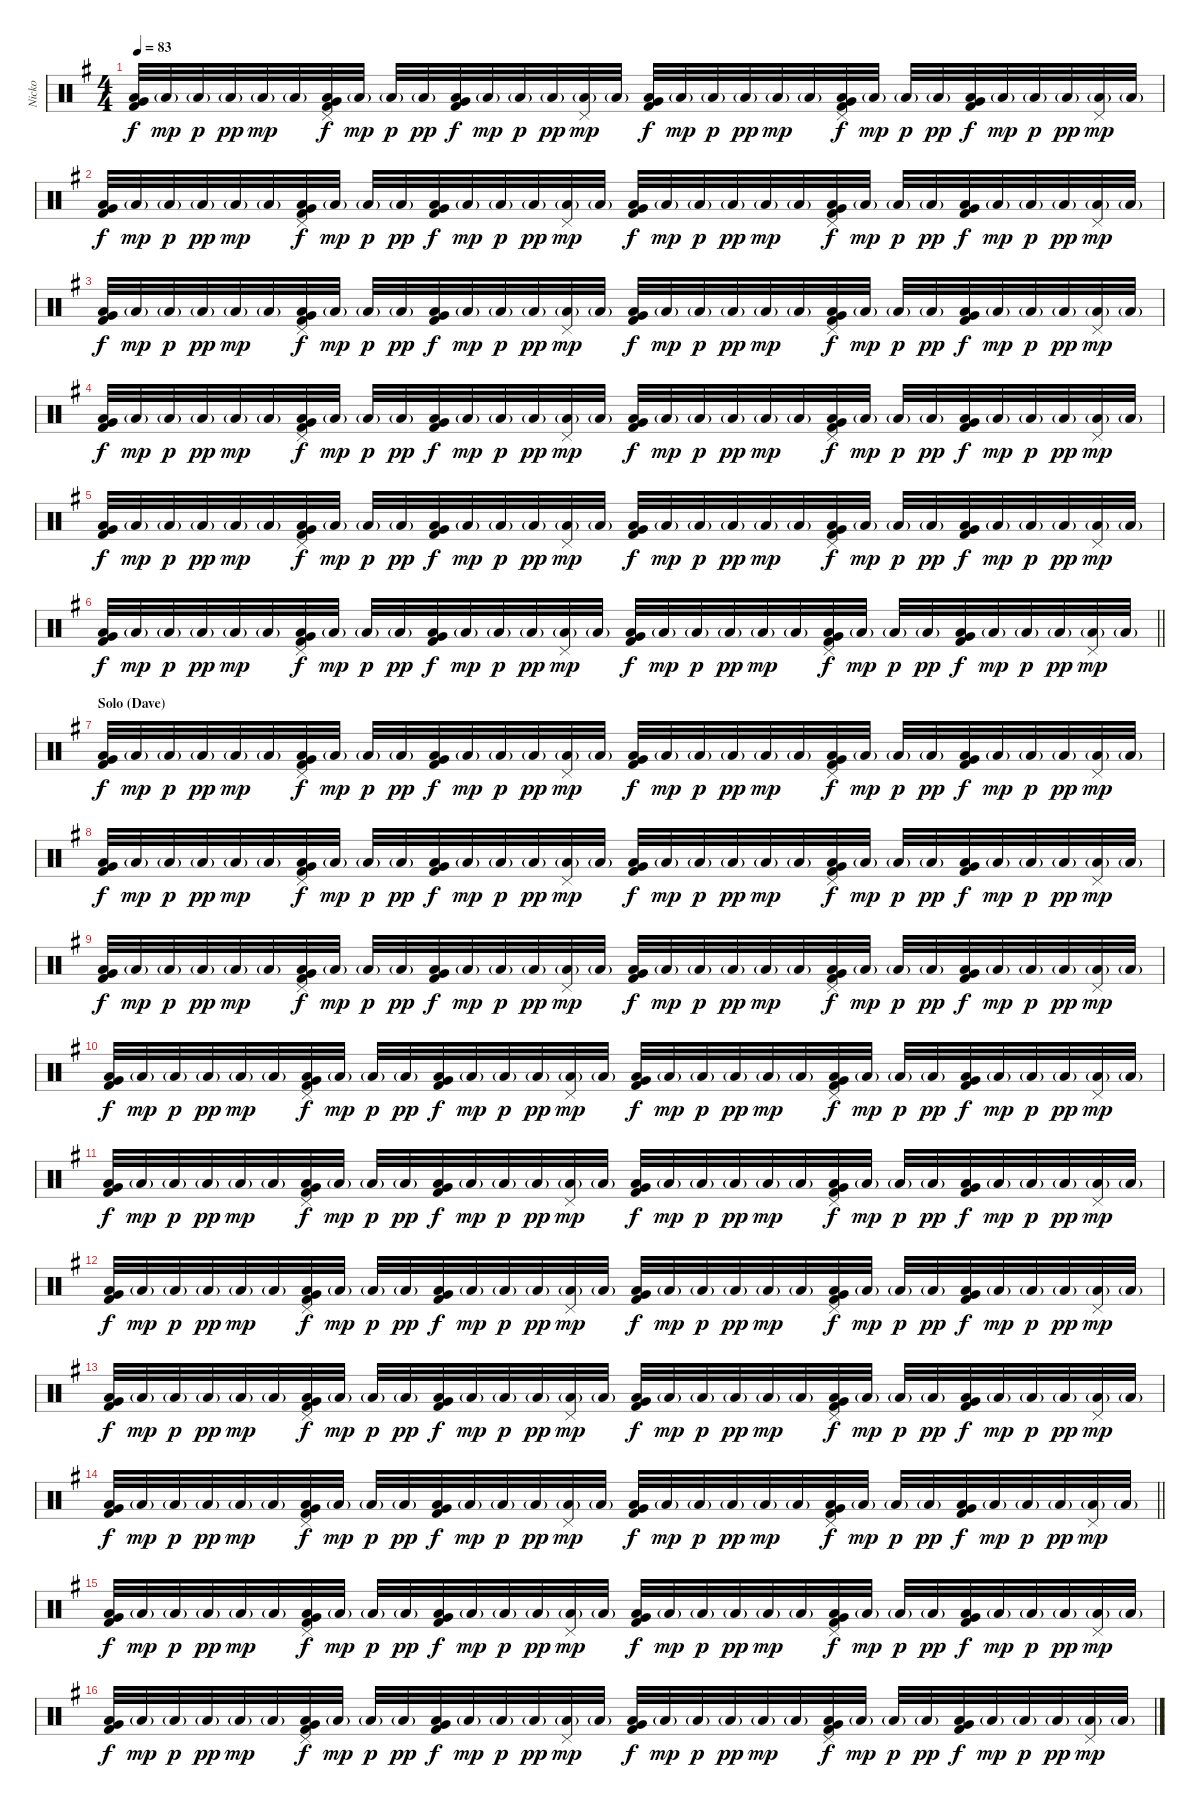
\track ("Nicko" "Nicko") {instrument percussion}
\staff {score}
\articulation defaults
\ts (4 4)
\tempo 83
\clef neutral
\ks eminor
("Low Floor Tom (hit)" "Very Low Tom (hit)" "Kick (hit) 2").32{dy f} "Low Floor Tom (hit)"{g}.32{dy mp} "Low Floor Tom (hit)"{g}.32{dy p} "Low Floor Tom (hit)"{g}.32{dy pp} "Low Floor Tom (hit)"{g}.32{dy mp} "Low Floor Tom (hit)"{g}.32 ("Pedal Hi-Hat (hit)" "Low Floor Tom (hit)" "Very Low Tom (hit)" "Kick (hit) 2").32{dy f} "Low Floor Tom (hit)"{g}.32{dy mp} "Low Floor Tom (hit)"{g}.32{dy p} "Low Floor Tom (hit)"{g}.32{dy pp} ("Low Floor Tom (hit)" "Very Low Tom (hit)" "Kick (hit) 2").32{dy f} "Low Floor Tom (hit)"{g}.32{dy mp} "Low Floor Tom (hit)"{g}.32{dy p} "Low Floor Tom (hit)"{g}.32{dy pp} ("Pedal Hi-Hat (hit)" "Low Floor Tom (hit)"{g}).32{dy mp} "Low Floor Tom (hit)"{g}.32 ("Low Floor Tom (hit)" "Very Low Tom (hit)" "Kick (hit) 2").32{dy f} "Low Floor Tom (hit)"{g}.32{dy mp} "Low Floor Tom (hit)"{g}.32{dy p} "Low Floor Tom (hit)"{g}.32{dy pp} "Low Floor Tom (hit)"{g}.32{dy mp} "Low Floor Tom (hit)"{g}.32 ("Pedal Hi-Hat (hit)" "Low Floor Tom (hit)" "Very Low Tom (hit)" "Kick (hit) 2").32{dy f} "Low Floor Tom (hit)"{g}.32{dy mp} "Low Floor Tom (hit)"{g}.32{dy p} "Low Floor Tom (hit)"{g}.32{dy pp} ("Low Floor Tom (hit)" "Very Low Tom (hit)" "Kick (hit) 2").32{dy f} "Low Floor Tom (hit)"{g}.32{dy mp} "Low Floor Tom (hit)"{g}.32{dy p} "Low Floor Tom (hit)"{g}.32{dy pp} ("Pedal Hi-Hat (hit)" "Low Floor Tom (hit)"{g}).32{dy mp} "Low Floor Tom (hit)"{g}.32 |
("Low Floor Tom (hit)" "Very Low Tom (hit)" "Kick (hit) 2").32{dy f} "Low Floor Tom (hit)"{g}.32{dy mp} "Low Floor Tom (hit)"{g}.32{dy p} "Low Floor Tom (hit)"{g}.32{dy pp} "Low Floor Tom (hit)"{g}.32{dy mp} "Low Floor Tom (hit)"{g}.32 ("Pedal Hi-Hat (hit)" "Low Floor Tom (hit)" "Very Low Tom (hit)" "Kick (hit) 2").32{dy f} "Low Floor Tom (hit)"{g}.32{dy mp} "Low Floor Tom (hit)"{g}.32{dy p} "Low Floor Tom (hit)"{g}.32{dy pp} ("Low Floor Tom (hit)" "Very Low Tom (hit)" "Kick (hit) 2").32{dy f} "Low Floor Tom (hit)"{g}.32{dy mp} "Low Floor Tom (hit)"{g}.32{dy p} "Low Floor Tom (hit)"{g}.32{dy pp} ("Pedal Hi-Hat (hit)" "Low Floor Tom (hit)"{g}).32{dy mp} "Low Floor Tom (hit)"{g}.32 ("Low Floor Tom (hit)" "Very Low Tom (hit)" "Kick (hit) 2").32{dy f} "Low Floor Tom (hit)"{g}.32{dy mp} "Low Floor Tom (hit)"{g}.32{dy p} "Low Floor Tom (hit)"{g}.32{dy pp} "Low Floor Tom (hit)"{g}.32{dy mp} "Low Floor Tom (hit)"{g}.32 ("Pedal Hi-Hat (hit)" "Low Floor Tom (hit)" "Very Low Tom (hit)" "Kick (hit) 2").32{dy f} "Low Floor Tom (hit)"{g}.32{dy mp} "Low Floor Tom (hit)"{g}.32{dy p} "Low Floor Tom (hit)"{g}.32{dy pp} ("Low Floor Tom (hit)" "Very Low Tom (hit)" "Kick (hit) 2").32{dy f} "Low Floor Tom (hit)"{g}.32{dy mp} "Low Floor Tom (hit)"{g}.32{dy p} "Low Floor Tom (hit)"{g}.32{dy pp} ("Pedal Hi-Hat (hit)" "Low Floor Tom (hit)"{g}).32{dy mp} "Low Floor Tom (hit)"{g}.32 |
("Low Floor Tom (hit)" "Very Low Tom (hit)" "Kick (hit) 2").32{dy f} "Low Floor Tom (hit)"{g}.32{dy mp} "Low Floor Tom (hit)"{g}.32{dy p} "Low Floor Tom (hit)"{g}.32{dy pp} "Low Floor Tom (hit)"{g}.32{dy mp} "Low Floor Tom (hit)"{g}.32 ("Pedal Hi-Hat (hit)" "Low Floor Tom (hit)" "Very Low Tom (hit)" "Kick (hit) 2").32{dy f} "Low Floor Tom (hit)"{g}.32{dy mp} "Low Floor Tom (hit)"{g}.32{dy p} "Low Floor Tom (hit)"{g}.32{dy pp} ("Low Floor Tom (hit)" "Very Low Tom (hit)" "Kick (hit) 2").32{dy f} "Low Floor Tom (hit)"{g}.32{dy mp} "Low Floor Tom (hit)"{g}.32{dy p} "Low Floor Tom (hit)"{g}.32{dy pp} ("Pedal Hi-Hat (hit)" "Low Floor Tom (hit)"{g}).32{dy mp} "Low Floor Tom (hit)"{g}.32 ("Low Floor Tom (hit)" "Very Low Tom (hit)" "Kick (hit) 2").32{dy f} "Low Floor Tom (hit)"{g}.32{dy mp} "Low Floor Tom (hit)"{g}.32{dy p} "Low Floor Tom (hit)"{g}.32{dy pp} "Low Floor Tom (hit)"{g}.32{dy mp} "Low Floor Tom (hit)"{g}.32 ("Pedal Hi-Hat (hit)" "Low Floor Tom (hit)" "Very Low Tom (hit)" "Kick (hit) 2").32{dy f} "Low Floor Tom (hit)"{g}.32{dy mp} "Low Floor Tom (hit)"{g}.32{dy p} "Low Floor Tom (hit)"{g}.32{dy pp} ("Low Floor Tom (hit)" "Very Low Tom (hit)" "Kick (hit) 2").32{dy f} "Low Floor Tom (hit)"{g}.32{dy mp} "Low Floor Tom (hit)"{g}.32{dy p} "Low Floor Tom (hit)"{g}.32{dy pp} ("Pedal Hi-Hat (hit)" "Low Floor Tom (hit)"{g}).32{dy mp} "Low Floor Tom (hit)"{g}.32 |
("Low Floor Tom (hit)" "Very Low Tom (hit)" "Kick (hit) 2").32{dy f} "Low Floor Tom (hit)"{g}.32{dy mp} "Low Floor Tom (hit)"{g}.32{dy p} "Low Floor Tom (hit)"{g}.32{dy pp} "Low Floor Tom (hit)"{g}.32{dy mp} "Low Floor Tom (hit)"{g}.32 ("Pedal Hi-Hat (hit)" "Low Floor Tom (hit)" "Very Low Tom (hit)" "Kick (hit) 2").32{dy f} "Low Floor Tom (hit)"{g}.32{dy mp} "Low Floor Tom (hit)"{g}.32{dy p} "Low Floor Tom (hit)"{g}.32{dy pp} ("Low Floor Tom (hit)" "Very Low Tom (hit)" "Kick (hit) 2").32{dy f} "Low Floor Tom (hit)"{g}.32{dy mp} "Low Floor Tom (hit)"{g}.32{dy p} "Low Floor Tom (hit)"{g}.32{dy pp} ("Pedal Hi-Hat (hit)" "Low Floor Tom (hit)"{g}).32{dy mp} "Low Floor Tom (hit)"{g}.32 ("Low Floor Tom (hit)" "Very Low Tom (hit)" "Kick (hit) 2").32{dy f} "Low Floor Tom (hit)"{g}.32{dy mp} "Low Floor Tom (hit)"{g}.32{dy p} "Low Floor Tom (hit)"{g}.32{dy pp} "Low Floor Tom (hit)"{g}.32{dy mp} "Low Floor Tom (hit)"{g}.32 ("Pedal Hi-Hat (hit)" "Low Floor Tom (hit)" "Very Low Tom (hit)" "Kick (hit) 2").32{dy f} "Low Floor Tom (hit)"{g}.32{dy mp} "Low Floor Tom (hit)"{g}.32{dy p} "Low Floor Tom (hit)"{g}.32{dy pp} ("Low Floor Tom (hit)" "Very Low Tom (hit)" "Kick (hit) 2").32{dy f} "Low Floor Tom (hit)"{g}.32{dy mp} "Low Floor Tom (hit)"{g}.32{dy p} "Low Floor Tom (hit)"{g}.32{dy pp} ("Pedal Hi-Hat (hit)" "Low Floor Tom (hit)"{g}).32{dy mp} "Low Floor Tom (hit)"{g}.32 |
("Low Floor Tom (hit)" "Very Low Tom (hit)" "Kick (hit) 2").32{dy f} "Low Floor Tom (hit)"{g}.32{dy mp} "Low Floor Tom (hit)"{g}.32{dy p} "Low Floor Tom (hit)"{g}.32{dy pp} "Low Floor Tom (hit)"{g}.32{dy mp} "Low Floor Tom (hit)"{g}.32 ("Pedal Hi-Hat (hit)" "Low Floor Tom (hit)" "Very Low Tom (hit)" "Kick (hit) 2").32{dy f} "Low Floor Tom (hit)"{g}.32{dy mp} "Low Floor Tom (hit)"{g}.32{dy p} "Low Floor Tom (hit)"{g}.32{dy pp} ("Low Floor Tom (hit)" "Very Low Tom (hit)" "Kick (hit) 2").32{dy f} "Low Floor Tom (hit)"{g}.32{dy mp} "Low Floor Tom (hit)"{g}.32{dy p} "Low Floor Tom (hit)"{g}.32{dy pp} ("Pedal Hi-Hat (hit)" "Low Floor Tom (hit)"{g}).32{dy mp} "Low Floor Tom (hit)"{g}.32 ("Low Floor Tom (hit)" "Very Low Tom (hit)" "Kick (hit) 2").32{dy f} "Low Floor Tom (hit)"{g}.32{dy mp} "Low Floor Tom (hit)"{g}.32{dy p} "Low Floor Tom (hit)"{g}.32{dy pp} "Low Floor Tom (hit)"{g}.32{dy mp} "Low Floor Tom (hit)"{g}.32 ("Pedal Hi-Hat (hit)" "Low Floor Tom (hit)" "Very Low Tom (hit)" "Kick (hit) 2").32{dy f} "Low Floor Tom (hit)"{g}.32{dy mp} "Low Floor Tom (hit)"{g}.32{dy p} "Low Floor Tom (hit)"{g}.32{dy pp} ("Low Floor Tom (hit)" "Very Low Tom (hit)" "Kick (hit) 2").32{dy f} "Low Floor Tom (hit)"{g}.32{dy mp} "Low Floor Tom (hit)"{g}.32{dy p} "Low Floor Tom (hit)"{g}.32{dy pp} ("Pedal Hi-Hat (hit)" "Low Floor Tom (hit)"{g}).32{dy mp} "Low Floor Tom (hit)"{g}.32 |
\barLineRight lightlight
("Low Floor Tom (hit)" "Very Low Tom (hit)" "Kick (hit) 2").32{dy f} "Low Floor Tom (hit)"{g}.32{dy mp} "Low Floor Tom (hit)"{g}.32{dy p} "Low Floor Tom (hit)"{g}.32{dy pp} "Low Floor Tom (hit)"{g}.32{dy mp} "Low Floor Tom (hit)"{g}.32 ("Pedal Hi-Hat (hit)" "Low Floor Tom (hit)" "Very Low Tom (hit)" "Kick (hit) 2").32{dy f} "Low Floor Tom (hit)"{g}.32{dy mp} "Low Floor Tom (hit)"{g}.32{dy p} "Low Floor Tom (hit)"{g}.32{dy pp} ("Low Floor Tom (hit)" "Very Low Tom (hit)" "Kick (hit) 2").32{dy f} "Low Floor Tom (hit)"{g}.32{dy mp} "Low Floor Tom (hit)"{g}.32{dy p} "Low Floor Tom (hit)"{g}.32{dy pp} ("Pedal Hi-Hat (hit)" "Low Floor Tom (hit)"{g}).32{dy mp} "Low Floor Tom (hit)"{g}.32 ("Low Floor Tom (hit)" "Very Low Tom (hit)" "Kick (hit) 2").32{dy f} "Low Floor Tom (hit)"{g}.32{dy mp} "Low Floor Tom (hit)"{g}.32{dy p} "Low Floor Tom (hit)"{g}.32{dy pp} "Low Floor Tom (hit)"{g}.32{dy mp} "Low Floor Tom (hit)"{g}.32 ("Pedal Hi-Hat (hit)" "Low Floor Tom (hit)" "Very Low Tom (hit)" "Kick (hit) 2").32{dy f} "Low Floor Tom (hit)"{g}.32{dy mp} "Low Floor Tom (hit)"{g}.32{dy p} "Low Floor Tom (hit)"{g}.32{dy pp} ("Low Floor Tom (hit)" "Very Low Tom (hit)" "Kick (hit) 2").32{dy f} "Low Floor Tom (hit)"{g}.32{dy mp} "Low Floor Tom (hit)"{g}.32{dy p} "Low Floor Tom (hit)"{g}.32{dy pp} ("Pedal Hi-Hat (hit)" "Low Floor Tom (hit)"{g}).32{dy mp} "Low Floor Tom (hit)"{g}.32 |
\section ("" "Solo (Dave)")
("Low Floor Tom (hit)" "Very Low Tom (hit)" "Kick (hit) 2").32{dy f} "Low Floor Tom (hit)"{g}.32{dy mp} "Low Floor Tom (hit)"{g}.32{dy p} "Low Floor Tom (hit)"{g}.32{dy pp} "Low Floor Tom (hit)"{g}.32{dy mp} "Low Floor Tom (hit)"{g}.32 ("Pedal Hi-Hat (hit)" "Low Floor Tom (hit)" "Very Low Tom (hit)" "Kick (hit) 2").32{dy f} "Low Floor Tom (hit)"{g}.32{dy mp} "Low Floor Tom (hit)"{g}.32{dy p} "Low Floor Tom (hit)"{g}.32{dy pp} ("Low Floor Tom (hit)" "Very Low Tom (hit)" "Kick (hit) 2").32{dy f} "Low Floor Tom (hit)"{g}.32{dy mp} "Low Floor Tom (hit)"{g}.32{dy p} "Low Floor Tom (hit)"{g}.32{dy pp} ("Pedal Hi-Hat (hit)" "Low Floor Tom (hit)"{g}).32{dy mp} "Low Floor Tom (hit)"{g}.32 ("Low Floor Tom (hit)" "Very Low Tom (hit)" "Kick (hit) 2").32{dy f} "Low Floor Tom (hit)"{g}.32{dy mp} "Low Floor Tom (hit)"{g}.32{dy p} "Low Floor Tom (hit)"{g}.32{dy pp} "Low Floor Tom (hit)"{g}.32{dy mp} "Low Floor Tom (hit)"{g}.32 ("Pedal Hi-Hat (hit)" "Low Floor Tom (hit)" "Very Low Tom (hit)" "Kick (hit) 2").32{dy f} "Low Floor Tom (hit)"{g}.32{dy mp} "Low Floor Tom (hit)"{g}.32{dy p} "Low Floor Tom (hit)"{g}.32{dy pp} ("Low Floor Tom (hit)" "Very Low Tom (hit)" "Kick (hit) 2").32{dy f} "Low Floor Tom (hit)"{g}.32{dy mp} "Low Floor Tom (hit)"{g}.32{dy p} "Low Floor Tom (hit)"{g}.32{dy pp} ("Pedal Hi-Hat (hit)" "Low Floor Tom (hit)"{g}).32{dy mp} "Low Floor Tom (hit)"{g}.32 |
("Low Floor Tom (hit)" "Very Low Tom (hit)" "Kick (hit) 2").32{dy f} "Low Floor Tom (hit)"{g}.32{dy mp} "Low Floor Tom (hit)"{g}.32{dy p} "Low Floor Tom (hit)"{g}.32{dy pp} "Low Floor Tom (hit)"{g}.32{dy mp} "Low Floor Tom (hit)"{g}.32 ("Pedal Hi-Hat (hit)" "Low Floor Tom (hit)" "Very Low Tom (hit)" "Kick (hit) 2").32{dy f} "Low Floor Tom (hit)"{g}.32{dy mp} "Low Floor Tom (hit)"{g}.32{dy p} "Low Floor Tom (hit)"{g}.32{dy pp} ("Low Floor Tom (hit)" "Very Low Tom (hit)" "Kick (hit) 2").32{dy f} "Low Floor Tom (hit)"{g}.32{dy mp} "Low Floor Tom (hit)"{g}.32{dy p} "Low Floor Tom (hit)"{g}.32{dy pp} ("Pedal Hi-Hat (hit)" "Low Floor Tom (hit)"{g}).32{dy mp} "Low Floor Tom (hit)"{g}.32 ("Low Floor Tom (hit)" "Very Low Tom (hit)" "Kick (hit) 2").32{dy f} "Low Floor Tom (hit)"{g}.32{dy mp} "Low Floor Tom (hit)"{g}.32{dy p} "Low Floor Tom (hit)"{g}.32{dy pp} "Low Floor Tom (hit)"{g}.32{dy mp} "Low Floor Tom (hit)"{g}.32 ("Pedal Hi-Hat (hit)" "Low Floor Tom (hit)" "Very Low Tom (hit)" "Kick (hit) 2").32{dy f} "Low Floor Tom (hit)"{g}.32{dy mp} "Low Floor Tom (hit)"{g}.32{dy p} "Low Floor Tom (hit)"{g}.32{dy pp} ("Low Floor Tom (hit)" "Very Low Tom (hit)" "Kick (hit) 2").32{dy f} "Low Floor Tom (hit)"{g}.32{dy mp} "Low Floor Tom (hit)"{g}.32{dy p} "Low Floor Tom (hit)"{g}.32{dy pp} ("Pedal Hi-Hat (hit)" "Low Floor Tom (hit)"{g}).32{dy mp} "Low Floor Tom (hit)"{g}.32 |
("Low Floor Tom (hit)" "Very Low Tom (hit)" "Kick (hit) 2").32{dy f} "Low Floor Tom (hit)"{g}.32{dy mp} "Low Floor Tom (hit)"{g}.32{dy p} "Low Floor Tom (hit)"{g}.32{dy pp} "Low Floor Tom (hit)"{g}.32{dy mp} "Low Floor Tom (hit)"{g}.32 ("Pedal Hi-Hat (hit)" "Low Floor Tom (hit)" "Very Low Tom (hit)" "Kick (hit) 2").32{dy f} "Low Floor Tom (hit)"{g}.32{dy mp} "Low Floor Tom (hit)"{g}.32{dy p} "Low Floor Tom (hit)"{g}.32{dy pp} ("Low Floor Tom (hit)" "Very Low Tom (hit)" "Kick (hit) 2").32{dy f} "Low Floor Tom (hit)"{g}.32{dy mp} "Low Floor Tom (hit)"{g}.32{dy p} "Low Floor Tom (hit)"{g}.32{dy pp} ("Pedal Hi-Hat (hit)" "Low Floor Tom (hit)"{g}).32{dy mp} "Low Floor Tom (hit)"{g}.32 ("Low Floor Tom (hit)" "Very Low Tom (hit)" "Kick (hit) 2").32{dy f} "Low Floor Tom (hit)"{g}.32{dy mp} "Low Floor Tom (hit)"{g}.32{dy p} "Low Floor Tom (hit)"{g}.32{dy pp} "Low Floor Tom (hit)"{g}.32{dy mp} "Low Floor Tom (hit)"{g}.32 ("Pedal Hi-Hat (hit)" "Low Floor Tom (hit)" "Very Low Tom (hit)" "Kick (hit) 2").32{dy f} "Low Floor Tom (hit)"{g}.32{dy mp} "Low Floor Tom (hit)"{g}.32{dy p} "Low Floor Tom (hit)"{g}.32{dy pp} ("Low Floor Tom (hit)" "Very Low Tom (hit)" "Kick (hit) 2").32{dy f} "Low Floor Tom (hit)"{g}.32{dy mp} "Low Floor Tom (hit)"{g}.32{dy p} "Low Floor Tom (hit)"{g}.32{dy pp} ("Pedal Hi-Hat (hit)" "Low Floor Tom (hit)"{g}).32{dy mp} "Low Floor Tom (hit)"{g}.32 |
("Low Floor Tom (hit)" "Very Low Tom (hit)" "Kick (hit) 2").32{dy f} "Low Floor Tom (hit)"{g}.32{dy mp} "Low Floor Tom (hit)"{g}.32{dy p} "Low Floor Tom (hit)"{g}.32{dy pp} "Low Floor Tom (hit)"{g}.32{dy mp} "Low Floor Tom (hit)"{g}.32 ("Pedal Hi-Hat (hit)" "Low Floor Tom (hit)" "Very Low Tom (hit)" "Kick (hit) 2").32{dy f} "Low Floor Tom (hit)"{g}.32{dy mp} "Low Floor Tom (hit)"{g}.32{dy p} "Low Floor Tom (hit)"{g}.32{dy pp} ("Low Floor Tom (hit)" "Very Low Tom (hit)" "Kick (hit) 2").32{dy f} "Low Floor Tom (hit)"{g}.32{dy mp} "Low Floor Tom (hit)"{g}.32{dy p} "Low Floor Tom (hit)"{g}.32{dy pp} ("Pedal Hi-Hat (hit)" "Low Floor Tom (hit)"{g}).32{dy mp} "Low Floor Tom (hit)"{g}.32 ("Low Floor Tom (hit)" "Very Low Tom (hit)" "Kick (hit) 2").32{dy f} "Low Floor Tom (hit)"{g}.32{dy mp} "Low Floor Tom (hit)"{g}.32{dy p} "Low Floor Tom (hit)"{g}.32{dy pp} "Low Floor Tom (hit)"{g}.32{dy mp} "Low Floor Tom (hit)"{g}.32 ("Pedal Hi-Hat (hit)" "Low Floor Tom (hit)" "Very Low Tom (hit)" "Kick (hit) 2").32{dy f} "Low Floor Tom (hit)"{g}.32{dy mp} "Low Floor Tom (hit)"{g}.32{dy p} "Low Floor Tom (hit)"{g}.32{dy pp} ("Low Floor Tom (hit)" "Very Low Tom (hit)" "Kick (hit) 2").32{dy f} "Low Floor Tom (hit)"{g}.32{dy mp} "Low Floor Tom (hit)"{g}.32{dy p} "Low Floor Tom (hit)"{g}.32{dy pp} ("Pedal Hi-Hat (hit)" "Low Floor Tom (hit)"{g}).32{dy mp} "Low Floor Tom (hit)"{g}.32 |
("Low Floor Tom (hit)" "Very Low Tom (hit)" "Kick (hit) 2").32{dy f} "Low Floor Tom (hit)"{g}.32{dy mp} "Low Floor Tom (hit)"{g}.32{dy p} "Low Floor Tom (hit)"{g}.32{dy pp} "Low Floor Tom (hit)"{g}.32{dy mp} "Low Floor Tom (hit)"{g}.32 ("Pedal Hi-Hat (hit)" "Low Floor Tom (hit)" "Very Low Tom (hit)" "Kick (hit) 2").32{dy f} "Low Floor Tom (hit)"{g}.32{dy mp} "Low Floor Tom (hit)"{g}.32{dy p} "Low Floor Tom (hit)"{g}.32{dy pp} ("Low Floor Tom (hit)" "Very Low Tom (hit)" "Kick (hit) 2").32{dy f} "Low Floor Tom (hit)"{g}.32{dy mp} "Low Floor Tom (hit)"{g}.32{dy p} "Low Floor Tom (hit)"{g}.32{dy pp} ("Pedal Hi-Hat (hit)" "Low Floor Tom (hit)"{g}).32{dy mp} "Low Floor Tom (hit)"{g}.32 ("Low Floor Tom (hit)" "Very Low Tom (hit)" "Kick (hit) 2").32{dy f} "Low Floor Tom (hit)"{g}.32{dy mp} "Low Floor Tom (hit)"{g}.32{dy p} "Low Floor Tom (hit)"{g}.32{dy pp} "Low Floor Tom (hit)"{g}.32{dy mp} "Low Floor Tom (hit)"{g}.32 ("Pedal Hi-Hat (hit)" "Low Floor Tom (hit)" "Very Low Tom (hit)" "Kick (hit) 2").32{dy f} "Low Floor Tom (hit)"{g}.32{dy mp} "Low Floor Tom (hit)"{g}.32{dy p} "Low Floor Tom (hit)"{g}.32{dy pp} ("Low Floor Tom (hit)" "Very Low Tom (hit)" "Kick (hit) 2").32{dy f} "Low Floor Tom (hit)"{g}.32{dy mp} "Low Floor Tom (hit)"{g}.32{dy p} "Low Floor Tom (hit)"{g}.32{dy pp} ("Pedal Hi-Hat (hit)" "Low Floor Tom (hit)"{g}).32{dy mp} "Low Floor Tom (hit)"{g}.32 |
("Low Floor Tom (hit)" "Very Low Tom (hit)" "Kick (hit) 2").32{dy f} "Low Floor Tom (hit)"{g}.32{dy mp} "Low Floor Tom (hit)"{g}.32{dy p} "Low Floor Tom (hit)"{g}.32{dy pp} "Low Floor Tom (hit)"{g}.32{dy mp} "Low Floor Tom (hit)"{g}.32 ("Pedal Hi-Hat (hit)" "Low Floor Tom (hit)" "Very Low Tom (hit)" "Kick (hit) 2").32{dy f} "Low Floor Tom (hit)"{g}.32{dy mp} "Low Floor Tom (hit)"{g}.32{dy p} "Low Floor Tom (hit)"{g}.32{dy pp} ("Low Floor Tom (hit)" "Very Low Tom (hit)" "Kick (hit) 2").32{dy f} "Low Floor Tom (hit)"{g}.32{dy mp} "Low Floor Tom (hit)"{g}.32{dy p} "Low Floor Tom (hit)"{g}.32{dy pp} ("Pedal Hi-Hat (hit)" "Low Floor Tom (hit)"{g}).32{dy mp} "Low Floor Tom (hit)"{g}.32 ("Low Floor Tom (hit)" "Very Low Tom (hit)" "Kick (hit) 2").32{dy f} "Low Floor Tom (hit)"{g}.32{dy mp} "Low Floor Tom (hit)"{g}.32{dy p} "Low Floor Tom (hit)"{g}.32{dy pp} "Low Floor Tom (hit)"{g}.32{dy mp} "Low Floor Tom (hit)"{g}.32 ("Pedal Hi-Hat (hit)" "Low Floor Tom (hit)" "Very Low Tom (hit)" "Kick (hit) 2").32{dy f} "Low Floor Tom (hit)"{g}.32{dy mp} "Low Floor Tom (hit)"{g}.32{dy p} "Low Floor Tom (hit)"{g}.32{dy pp} ("Low Floor Tom (hit)" "Very Low Tom (hit)" "Kick (hit) 2").32{dy f} "Low Floor Tom (hit)"{g}.32{dy mp} "Low Floor Tom (hit)"{g}.32{dy p} "Low Floor Tom (hit)"{g}.32{dy pp} ("Pedal Hi-Hat (hit)" "Low Floor Tom (hit)"{g}).32{dy mp} "Low Floor Tom (hit)"{g}.32 |
("Low Floor Tom (hit)" "Very Low Tom (hit)" "Kick (hit) 2").32{dy f} "Low Floor Tom (hit)"{g}.32{dy mp} "Low Floor Tom (hit)"{g}.32{dy p} "Low Floor Tom (hit)"{g}.32{dy pp} "Low Floor Tom (hit)"{g}.32{dy mp} "Low Floor Tom (hit)"{g}.32 ("Pedal Hi-Hat (hit)" "Low Floor Tom (hit)" "Very Low Tom (hit)" "Kick (hit) 2").32{dy f} "Low Floor Tom (hit)"{g}.32{dy mp} "Low Floor Tom (hit)"{g}.32{dy p} "Low Floor Tom (hit)"{g}.32{dy pp} ("Low Floor Tom (hit)" "Very Low Tom (hit)" "Kick (hit) 2").32{dy f} "Low Floor Tom (hit)"{g}.32{dy mp} "Low Floor Tom (hit)"{g}.32{dy p} "Low Floor Tom (hit)"{g}.32{dy pp} ("Pedal Hi-Hat (hit)" "Low Floor Tom (hit)"{g}).32{dy mp} "Low Floor Tom (hit)"{g}.32 ("Low Floor Tom (hit)" "Very Low Tom (hit)" "Kick (hit) 2").32{dy f} "Low Floor Tom (hit)"{g}.32{dy mp} "Low Floor Tom (hit)"{g}.32{dy p} "Low Floor Tom (hit)"{g}.32{dy pp} "Low Floor Tom (hit)"{g}.32{dy mp} "Low Floor Tom (hit)"{g}.32 ("Pedal Hi-Hat (hit)" "Low Floor Tom (hit)" "Very Low Tom (hit)" "Kick (hit) 2").32{dy f} "Low Floor Tom (hit)"{g}.32{dy mp} "Low Floor Tom (hit)"{g}.32{dy p} "Low Floor Tom (hit)"{g}.32{dy pp} ("Low Floor Tom (hit)" "Very Low Tom (hit)" "Kick (hit) 2").32{dy f} "Low Floor Tom (hit)"{g}.32{dy mp} "Low Floor Tom (hit)"{g}.32{dy p} "Low Floor Tom (hit)"{g}.32{dy pp} ("Pedal Hi-Hat (hit)" "Low Floor Tom (hit)"{g}).32{dy mp} "Low Floor Tom (hit)"{g}.32 |
\barLineRight lightlight
("Low Floor Tom (hit)" "Very Low Tom (hit)" "Kick (hit) 2").32{dy f} "Low Floor Tom (hit)"{g}.32{dy mp} "Low Floor Tom (hit)"{g}.32{dy p} "Low Floor Tom (hit)"{g}.32{dy pp} "Low Floor Tom (hit)"{g}.32{dy mp} "Low Floor Tom (hit)"{g}.32 ("Pedal Hi-Hat (hit)" "Low Floor Tom (hit)" "Very Low Tom (hit)" "Kick (hit) 2").32{dy f} "Low Floor Tom (hit)"{g}.32{dy mp} "Low Floor Tom (hit)"{g}.32{dy p} "Low Floor Tom (hit)"{g}.32{dy pp} ("Low Floor Tom (hit)" "Very Low Tom (hit)" "Kick (hit) 2").32{dy f} "Low Floor Tom (hit)"{g}.32{dy mp} "Low Floor Tom (hit)"{g}.32{dy p} "Low Floor Tom (hit)"{g}.32{dy pp} ("Pedal Hi-Hat (hit)" "Low Floor Tom (hit)"{g}).32{dy mp} "Low Floor Tom (hit)"{g}.32 ("Low Floor Tom (hit)" "Very Low Tom (hit)" "Kick (hit) 2").32{dy f} "Low Floor Tom (hit)"{g}.32{dy mp} "Low Floor Tom (hit)"{g}.32{dy p} "Low Floor Tom (hit)"{g}.32{dy pp} "Low Floor Tom (hit)"{g}.32{dy mp} "Low Floor Tom (hit)"{g}.32 ("Pedal Hi-Hat (hit)" "Low Floor Tom (hit)" "Very Low Tom (hit)" "Kick (hit) 2").32{dy f} "Low Floor Tom (hit)"{g}.32{dy mp} "Low Floor Tom (hit)"{g}.32{dy p} "Low Floor Tom (hit)"{g}.32{dy pp} ("Low Floor Tom (hit)" "Very Low Tom (hit)" "Kick (hit) 2").32{dy f} "Low Floor Tom (hit)"{g}.32{dy mp} "Low Floor Tom (hit)"{g}.32{dy p} "Low Floor Tom (hit)"{g}.32{dy pp} ("Pedal Hi-Hat (hit)" "Low Floor Tom (hit)"{g}).32{dy mp} "Low Floor Tom (hit)"{g}.32 |
\section ("" "")
("Low Floor Tom (hit)" "Very Low Tom (hit)" "Kick (hit) 2").32{dy f} "Low Floor Tom (hit)"{g}.32{dy mp} "Low Floor Tom (hit)"{g}.32{dy p} "Low Floor Tom (hit)"{g}.32{dy pp} "Low Floor Tom (hit)"{g}.32{dy mp} "Low Floor Tom (hit)"{g}.32 ("Pedal Hi-Hat (hit)" "Low Floor Tom (hit)" "Very Low Tom (hit)" "Kick (hit) 2").32{dy f} "Low Floor Tom (hit)"{g}.32{dy mp} "Low Floor Tom (hit)"{g}.32{dy p} "Low Floor Tom (hit)"{g}.32{dy pp} ("Low Floor Tom (hit)" "Very Low Tom (hit)" "Kick (hit) 2").32{dy f} "Low Floor Tom (hit)"{g}.32{dy mp} "Low Floor Tom (hit)"{g}.32{dy p} "Low Floor Tom (hit)"{g}.32{dy pp} ("Pedal Hi-Hat (hit)" "Low Floor Tom (hit)"{g}).32{dy mp} "Low Floor Tom (hit)"{g}.32 ("Low Floor Tom (hit)" "Very Low Tom (hit)" "Kick (hit) 2").32{dy f} "Low Floor Tom (hit)"{g}.32{dy mp} "Low Floor Tom (hit)"{g}.32{dy p} "Low Floor Tom (hit)"{g}.32{dy pp} "Low Floor Tom (hit)"{g}.32{dy mp} "Low Floor Tom (hit)"{g}.32 ("Pedal Hi-Hat (hit)" "Low Floor Tom (hit)" "Very Low Tom (hit)" "Kick (hit) 2").32{dy f} "Low Floor Tom (hit)"{g}.32{dy mp} "Low Floor Tom (hit)"{g}.32{dy p} "Low Floor Tom (hit)"{g}.32{dy pp} ("Low Floor Tom (hit)" "Very Low Tom (hit)" "Kick (hit) 2").32{dy f} "Low Floor Tom (hit)"{g}.32{dy mp} "Low Floor Tom (hit)"{g}.32{dy p} "Low Floor Tom (hit)"{g}.32{dy pp} ("Pedal Hi-Hat (hit)" "Low Floor Tom (hit)"{g}).32{dy mp} "Low Floor Tom (hit)"{g}.32 |
("Low Floor Tom (hit)" "Very Low Tom (hit)" "Kick (hit) 2").32{dy f} "Low Floor Tom (hit)"{g}.32{dy mp} "Low Floor Tom (hit)"{g}.32{dy p} "Low Floor Tom (hit)"{g}.32{dy pp} "Low Floor Tom (hit)"{g}.32{dy mp} "Low Floor Tom (hit)"{g}.32 ("Pedal Hi-Hat (hit)" "Low Floor Tom (hit)" "Very Low Tom (hit)" "Kick (hit) 2").32{dy f} "Low Floor Tom (hit)"{g}.32{dy mp} "Low Floor Tom (hit)"{g}.32{dy p} "Low Floor Tom (hit)"{g}.32{dy pp} ("Low Floor Tom (hit)" "Very Low Tom (hit)" "Kick (hit) 2").32{dy f} "Low Floor Tom (hit)"{g}.32{dy mp} "Low Floor Tom (hit)"{g}.32{dy p} "Low Floor Tom (hit)"{g}.32{dy pp} ("Pedal Hi-Hat (hit)" "Low Floor Tom (hit)"{g}).32{dy mp} "Low Floor Tom (hit)"{g}.32 ("Low Floor Tom (hit)" "Very Low Tom (hit)" "Kick (hit) 2").32{dy f} "Low Floor Tom (hit)"{g}.32{dy mp} "Low Floor Tom (hit)"{g}.32{dy p} "Low Floor Tom (hit)"{g}.32{dy pp} "Low Floor Tom (hit)"{g}.32{dy mp} "Low Floor Tom (hit)"{g}.32 ("Pedal Hi-Hat (hit)" "Low Floor Tom (hit)" "Very Low Tom (hit)" "Kick (hit) 2").32{dy f} "Low Floor Tom (hit)"{g}.32{dy mp} "Low Floor Tom (hit)"{g}.32{dy p} "Low Floor Tom (hit)"{g}.32{dy pp} ("Low Floor Tom (hit)" "Very Low Tom (hit)" "Kick (hit) 2").32{dy f} "Low Floor Tom (hit)"{g}.32{dy mp} "Low Floor Tom (hit)"{g}.32{dy p} "Low Floor Tom (hit)"{g}.32{dy pp} ("Pedal Hi-Hat (hit)" "Low Floor Tom (hit)"{g}).32{dy mp} "Low Floor Tom (hit)"{g}.32
